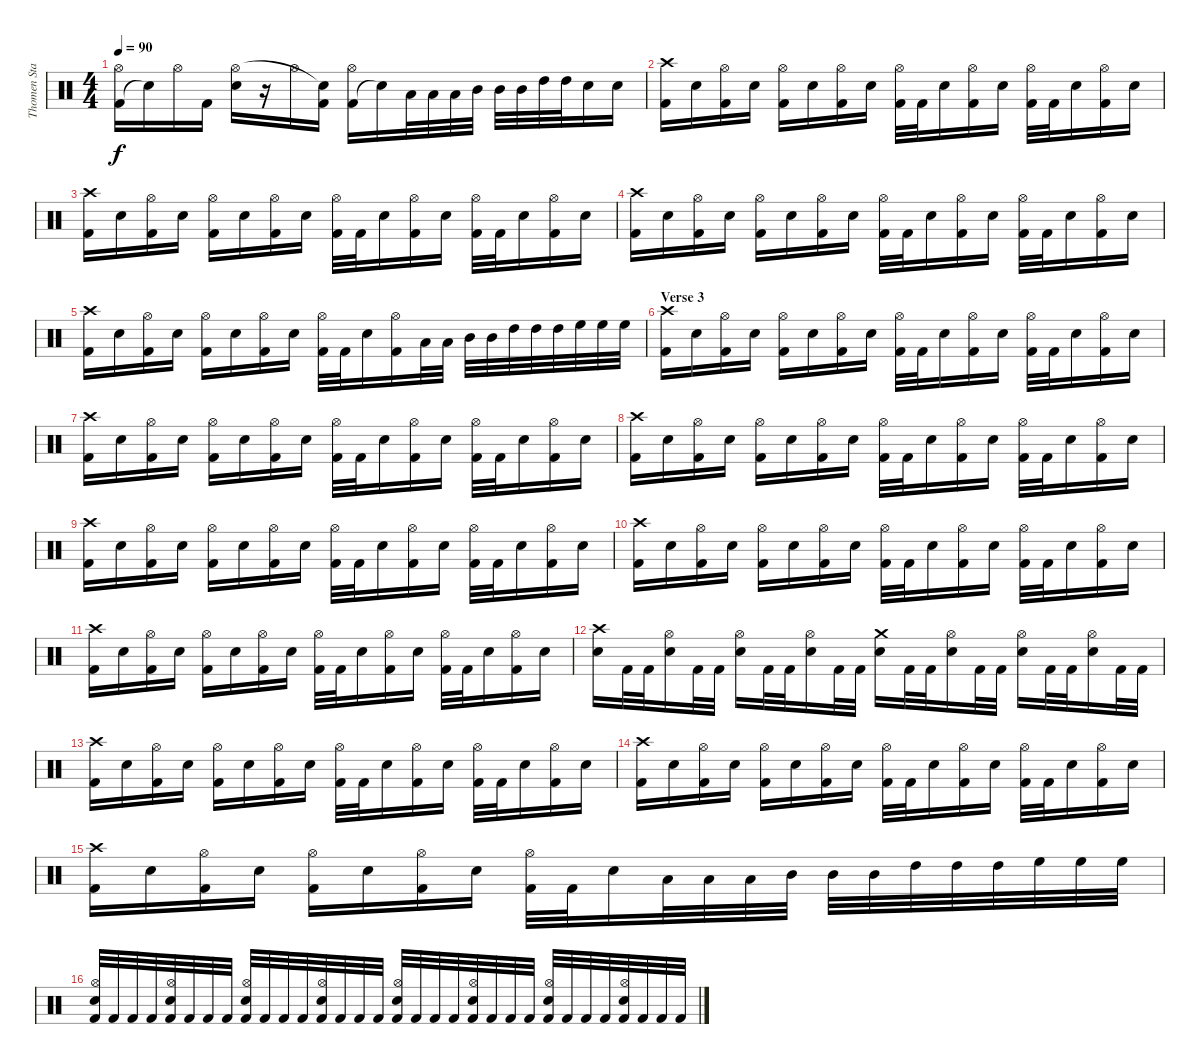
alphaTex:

\track ("Thomen Stauch" "Thomen Sta") {instrument percussion}
\staff {score}
\articulation defaults
\ts (4 4)
\tempo 90
\clef neutral
\ks c
("Kick (hit) 2" "Hi-Hat (open)").16{dy f} "Snare (hit)"{t}.16 "Hi-Hat (open)".16 "Kick (hit) 2".16 ("Snare (hit) 2" "Hi-Hat (open)").16 r.16 "Hi-Hat (open)".16 ("Kick (hit) 2" "Snare (hit)"{t}).16 ("Kick (hit) 2" "Hi-Hat (open)").16 "Snare (hit)"{t}.16 "Low Tom (hit)".32 "Low Tom (hit)".32 "Low Tom (hit)".32 "Mid Tom (hit)".32 "Mid Tom (hit)".32 "Mid Tom (hit)".32 "High Tom (hit)".32 "High Tom (hit)".32 "Snare (hit) 2".16 "Snare (hit) 2".16 |
("Kick (hit) 2" "Crash high (hit)").16 "Snare (hit) 2".16 ("Kick (hit) 2" "Hi-Hat (open)").16 "Snare (hit) 2".16 ("Kick (hit) 2" "Hi-Hat (open)").16 "Snare (hit) 2".16 ("Kick (hit) 2" "Hi-Hat (open)").16 "Snare (hit) 2".16 ("Kick (hit) 2" "Hi-Hat (open)").32 "Kick (hit) 2".32 "Snare (hit) 2".16 ("Kick (hit) 2" "Hi-Hat (open)").16 "Snare (hit) 2".16 ("Kick (hit) 2" "Hi-Hat (open)").32 "Kick (hit) 2".32 "Snare (hit) 2".16 ("Kick (hit) 2" "Hi-Hat (open)").16 "Snare (hit) 2".16 |
("Kick (hit) 2" "Crash high (hit)").16 "Snare (hit) 2".16 ("Kick (hit) 2" "Hi-Hat (open)").16 "Snare (hit) 2".16 ("Kick (hit) 2" "Hi-Hat (open)").16 "Snare (hit) 2".16 ("Kick (hit) 2" "Hi-Hat (open)").16 "Snare (hit) 2".16 ("Kick (hit) 2" "Hi-Hat (open)").32 "Kick (hit) 2".32 "Snare (hit) 2".16 ("Kick (hit) 2" "Hi-Hat (open)").16 "Snare (hit) 2".16 ("Kick (hit) 2" "Hi-Hat (open)").32 "Kick (hit) 2".32 "Snare (hit) 2".16 ("Kick (hit) 2" "Hi-Hat (open)").16 "Snare (hit) 2".16 |
("Kick (hit) 2" "Crash high (hit)").16 "Snare (hit) 2".16 ("Kick (hit) 2" "Hi-Hat (open)").16 "Snare (hit) 2".16 ("Kick (hit) 2" "Hi-Hat (open)").16 "Snare (hit) 2".16 ("Kick (hit) 2" "Hi-Hat (open)").16 "Snare (hit) 2".16 ("Kick (hit) 2" "Hi-Hat (open)").32 "Kick (hit) 2".32 "Snare (hit) 2".16 ("Kick (hit) 2" "Hi-Hat (open)").16 "Snare (hit) 2".16 ("Kick (hit) 2" "Hi-Hat (open)").32 "Kick (hit) 2".32 "Snare (hit) 2".16 ("Kick (hit) 2" "Hi-Hat (open)").16 "Snare (hit) 2".16 |
("Kick (hit) 2" "Crash high (hit)").16 "Snare (hit) 2".16 ("Kick (hit) 2" "Hi-Hat (open)").16 "Snare (hit) 2".16 ("Kick (hit) 2" "Hi-Hat (open)").16 "Snare (hit) 2".16 ("Kick (hit) 2" "Hi-Hat (open)").16 "Snare (hit) 2".16 ("Kick (hit) 2" "Hi-Hat (open)").32 "Kick (hit) 2".32 "Snare (hit) 2".16 ("Kick (hit) 2" "Hi-Hat (open)").16 "Low Tom (hit)".32 "Low Tom (hit)".32 "Mid Tom (hit)".32 "Mid Tom (hit)".32 "High Tom (hit)".32 "High Tom (hit)".32 "High Tom (hit)".32 "High Floor Tom (hit)".32 "High Floor Tom (hit)".32 "High Floor Tom (hit)".32 |
\section ("" "Verse 3")
("Kick (hit) 2" "Crash high (hit)").16 "Snare (hit) 2".16 ("Kick (hit) 2" "Hi-Hat (open)").16 "Snare (hit) 2".16 ("Kick (hit) 2" "Hi-Hat (open)").16 "Snare (hit) 2".16 ("Kick (hit) 2" "Hi-Hat (open)").16 "Snare (hit) 2".16 ("Kick (hit) 2" "Hi-Hat (open)").32 "Kick (hit) 2".32 "Snare (hit) 2".16 ("Kick (hit) 2" "Hi-Hat (open)").16 "Snare (hit) 2".16 ("Kick (hit) 2" "Hi-Hat (open)").32 "Kick (hit) 2".32 "Snare (hit) 2".16 ("Kick (hit) 2" "Hi-Hat (open)").16 "Snare (hit) 2".16 |
("Kick (hit) 2" "Crash high (hit)").16 "Snare (hit) 2".16 ("Kick (hit) 2" "Hi-Hat (open)").16 "Snare (hit) 2".16 ("Kick (hit) 2" "Hi-Hat (open)").16 "Snare (hit) 2".16 ("Kick (hit) 2" "Hi-Hat (open)").16 "Snare (hit) 2".16 ("Kick (hit) 2" "Hi-Hat (open)").32 "Kick (hit) 2".32 "Snare (hit) 2".16 ("Kick (hit) 2" "Hi-Hat (open)").16 "Snare (hit) 2".16 ("Kick (hit) 2" "Hi-Hat (open)").32 "Kick (hit) 2".32 "Snare (hit) 2".16 ("Kick (hit) 2" "Hi-Hat (open)").16 "Snare (hit) 2".16 |
("Kick (hit) 2" "Crash high (hit)").16 "Snare (hit) 2".16 ("Kick (hit) 2" "Hi-Hat (open)").16 "Snare (hit) 2".16 ("Kick (hit) 2" "Hi-Hat (open)").16 "Snare (hit) 2".16 ("Kick (hit) 2" "Hi-Hat (open)").16 "Snare (hit) 2".16 ("Kick (hit) 2" "Hi-Hat (open)").32 "Kick (hit) 2".32 "Snare (hit) 2".16 ("Kick (hit) 2" "Hi-Hat (open)").16 "Snare (hit) 2".16 ("Kick (hit) 2" "Hi-Hat (open)").32 "Kick (hit) 2".32 "Snare (hit) 2".16 ("Kick (hit) 2" "Hi-Hat (open)").16 "Snare (hit) 2".16 |
("Kick (hit) 2" "Crash high (hit)").16 "Snare (hit) 2".16 ("Kick (hit) 2" "Hi-Hat (open)").16 "Snare (hit) 2".16 ("Kick (hit) 2" "Hi-Hat (open)").16 "Snare (hit) 2".16 ("Kick (hit) 2" "Hi-Hat (open)").16 "Snare (hit) 2".16 ("Kick (hit) 2" "Hi-Hat (open)").32 "Kick (hit) 2".32 "Snare (hit) 2".16 ("Kick (hit) 2" "Hi-Hat (open)").16 "Snare (hit) 2".16 ("Kick (hit) 2" "Hi-Hat (open)").32 "Kick (hit) 2".32 "Snare (hit) 2".16 ("Kick (hit) 2" "Hi-Hat (open)").16 "Snare (hit) 2".16 |
("Kick (hit) 2" "Crash high (hit)").16 "Snare (hit) 2".16 ("Kick (hit) 2" "Hi-Hat (open)").16 "Snare (hit) 2".16 ("Kick (hit) 2" "Hi-Hat (open)").16 "Snare (hit) 2".16 ("Kick (hit) 2" "Hi-Hat (open)").16 "Snare (hit) 2".16 ("Kick (hit) 2" "Hi-Hat (open)").32 "Kick (hit) 2".32 "Snare (hit) 2".16 ("Kick (hit) 2" "Hi-Hat (open)").16 "Snare (hit) 2".16 ("Kick (hit) 2" "Hi-Hat (open)").32 "Kick (hit) 2".32 "Snare (hit) 2".16 ("Kick (hit) 2" "Hi-Hat (open)").16 "Snare (hit) 2".16 |
("Kick (hit) 2" "Crash high (hit)").16 "Snare (hit) 2".16 ("Kick (hit) 2" "Hi-Hat (open)").16 "Snare (hit) 2".16 ("Kick (hit) 2" "Hi-Hat (open)").16 "Snare (hit) 2".16 ("Kick (hit) 2" "Hi-Hat (open)").16 "Snare (hit) 2".16 ("Kick (hit) 2" "Hi-Hat (open)").32 "Kick (hit) 2".32 "Snare (hit) 2".16 ("Kick (hit) 2" "Hi-Hat (open)").16 "Snare (hit) 2".16 ("Kick (hit) 2" "Hi-Hat (open)").32 "Kick (hit) 2".32 "Snare (hit) 2".16 ("Kick (hit) 2" "Hi-Hat (open)").16 "Snare (hit) 2".16 |
("Snare (hit) 2" "Crash high (hit)").16 "Kick (hit) 2".32 "Kick (hit) 2".32 ("Snare (hit) 2" "Hi-Hat (open)").16 "Kick (hit) 2".32 "Kick (hit) 2".32 ("Snare (hit) 2" "Hi-Hat (open)").16 "Kick (hit) 2".32 "Kick (hit) 2".32 ("Snare (hit) 2" "Hi-Hat (open)").16 "Kick (hit) 2".32 "Kick (hit) 2".32 ("Snare (hit) 2" "Crash medium (hit)").16 "Kick (hit) 2".32 "Kick (hit) 2".32 ("Snare (hit) 2" "Hi-Hat (open)").16 "Kick (hit) 2".32 "Kick (hit) 2".32 ("Snare (hit) 2" "Hi-Hat (open)").16 "Kick (hit) 2".32 "Kick (hit) 2".32 ("Snare (hit) 2" "Hi-Hat (open)").16 "Kick (hit) 2".32 "Kick (hit) 2".32 |
("Kick (hit) 2" "Crash high (hit)").16 "Snare (hit) 2".16 ("Kick (hit) 2" "Hi-Hat (open)").16 "Snare (hit) 2".16 ("Kick (hit) 2" "Hi-Hat (open)").16 "Snare (hit) 2".16 ("Kick (hit) 2" "Hi-Hat (open)").16 "Snare (hit) 2".16 ("Kick (hit) 2" "Hi-Hat (open)").32 "Kick (hit) 2".32 "Snare (hit) 2".16 ("Kick (hit) 2" "Hi-Hat (open)").16 "Snare (hit) 2".16 ("Kick (hit) 2" "Hi-Hat (open)").32 "Kick (hit) 2".32 "Snare (hit) 2".16 ("Kick (hit) 2" "Hi-Hat (open)").16 "Snare (hit) 2".16 |
("Kick (hit) 2" "Crash high (hit)").16 "Snare (hit) 2".16 ("Kick (hit) 2" "Hi-Hat (open)").16 "Snare (hit) 2".16 ("Kick (hit) 2" "Hi-Hat (open)").16 "Snare (hit) 2".16 ("Kick (hit) 2" "Hi-Hat (open)").16 "Snare (hit) 2".16 ("Kick (hit) 2" "Hi-Hat (open)").32 "Kick (hit) 2".32 "Snare (hit) 2".16 ("Kick (hit) 2" "Hi-Hat (open)").16 "Snare (hit) 2".16 ("Kick (hit) 2" "Hi-Hat (open)").32 "Kick (hit) 2".32 "Snare (hit) 2".16 ("Kick (hit) 2" "Hi-Hat (open)").16 "Snare (hit) 2".16 |
("Kick (hit) 2" "Crash high (hit)").16 "Snare (hit) 2".16 ("Kick (hit) 2" "Hi-Hat (open)").16 "Snare (hit) 2".16 ("Kick (hit) 2" "Hi-Hat (open)").16 "Snare (hit) 2".16 ("Kick (hit) 2" "Hi-Hat (open)").16 "Snare (hit) 2".16 ("Kick (hit) 2" "Hi-Hat (open)").32 "Kick (hit) 2".32 "Snare (hit) 2".16 "Low Tom (hit)".32 "Low Tom (hit)".32 "Low Tom (hit)".32 "Mid Tom (hit)".32 "Mid Tom (hit)".32 "Mid Tom (hit)".32 "High Tom (hit)".32 "High Tom (hit)".32 "High Tom (hit)".32 "High Floor Tom (hit)".32 "High Floor Tom (hit)".32 "High Floor Tom (hit)".32 |
("Kick (hit) 2" "Snare (hit) 2" "Hi-Hat (open)").32 "Kick (hit) 2".32 "Kick (hit) 2".32 "Kick (hit) 2".32 ("Kick (hit) 2" "Snare (hit) 2" "Hi-Hat (open)").32 "Kick (hit) 2".32 "Kick (hit) 2".32 "Kick (hit) 2".32 ("Kick (hit) 2" "Snare (hit) 2" "Hi-Hat (open)").32 "Kick (hit) 2".32 "Kick (hit) 2".32 "Kick (hit) 2".32 ("Kick (hit) 2" "Snare (hit) 2" "Hi-Hat (open)").32 "Kick (hit) 2".32 "Kick (hit) 2".32 "Kick (hit) 2".32 ("Kick (hit) 2" "Snare (hit) 2" "Hi-Hat (open)").32 "Kick (hit) 2".32 "Kick (hit) 2".32 "Kick (hit) 2".32 ("Kick (hit) 2" "Snare (hit) 2" "Hi-Hat (open)").32 "Kick (hit) 2".32 "Kick (hit) 2".32 "Kick (hit) 2".32 ("Kick (hit) 2" "Snare (hit) 2" "Hi-Hat (open)").32 "Kick (hit) 2".32 "Kick (hit) 2".32 "Kick (hit) 2".32 ("Kick (hit) 2" "Snare (hit) 2" "Hi-Hat (open)").32 "Kick (hit) 2".32 "Kick (hit) 2".32 "Kick (hit) 2".32
